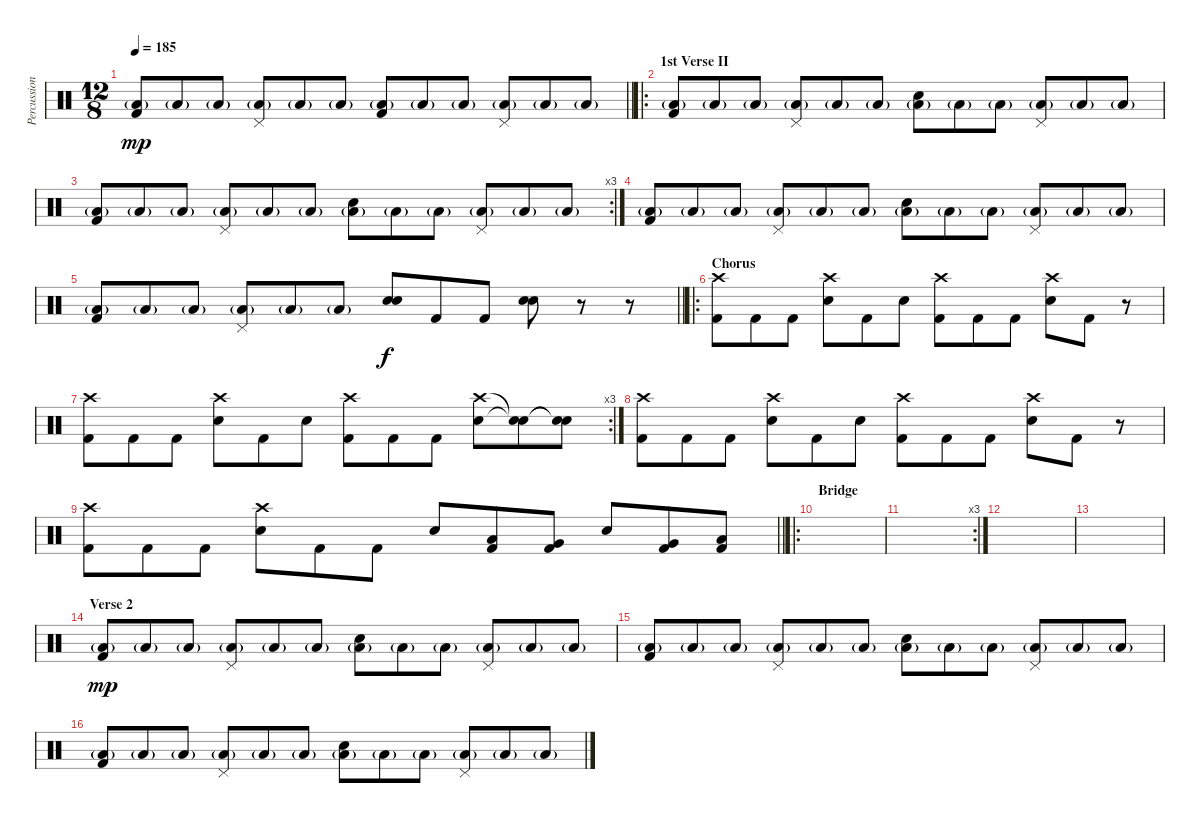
\track ("Percussion" "Percussion") {instrument percussion}
\staff {score}
\articulation defaults
\ts (12 8)
\tempo 185
\clef neutral
\barLineRight lightlight
\ks c
("Low Floor Tom (hit)"{g} "Kick (hit) 2").8{dy mp} "Low Floor Tom (hit)"{g}.8 "Low Floor Tom (hit)"{g}.8 ("Low Floor Tom (hit)"{g} "Pedal Hi-Hat (hit)").8 "Low Floor Tom (hit)"{g}.8 "Low Floor Tom (hit)"{g}.8 ("Low Floor Tom (hit)"{g} "Kick (hit) 2").8 "Low Floor Tom (hit)"{g}.8 "Low Floor Tom (hit)"{g}.8 ("Low Floor Tom (hit)"{g} "Pedal Hi-Hat (hit)").8 "Low Floor Tom (hit)"{g}.8 "Low Floor Tom (hit)"{g}.8 |
\ro
\section ("" "1st Verse II")
("Low Floor Tom (hit)"{g} "Kick (hit) 2").8 "Low Floor Tom (hit)"{g}.8 "Low Floor Tom (hit)"{g}.8 ("Low Floor Tom (hit)"{g} "Pedal Hi-Hat (hit)").8 "Low Floor Tom (hit)"{g}.8 "Low Floor Tom (hit)"{g}.8 ("Low Floor Tom (hit)"{g} "Electric Snare (hit)").8 "Low Floor Tom (hit)"{g}.8 "Low Floor Tom (hit)"{g}.8 ("Low Floor Tom (hit)"{g} "Pedal Hi-Hat (hit)").8 "Low Floor Tom (hit)"{g}.8 "Low Floor Tom (hit)"{g}.8 |
\rc 3
("Low Floor Tom (hit)"{g} "Kick (hit) 2").8 "Low Floor Tom (hit)"{g}.8 "Low Floor Tom (hit)"{g}.8 ("Low Floor Tom (hit)"{g} "Pedal Hi-Hat (hit)").8 "Low Floor Tom (hit)"{g}.8 "Low Floor Tom (hit)"{g}.8 ("Low Floor Tom (hit)"{g} "Electric Snare (hit)").8 "Low Floor Tom (hit)"{g}.8 "Low Floor Tom (hit)"{g}.8 ("Low Floor Tom (hit)"{g} "Pedal Hi-Hat (hit)").8 "Low Floor Tom (hit)"{g}.8 "Low Floor Tom (hit)"{g}.8 |
("Low Floor Tom (hit)"{g} "Kick (hit) 2").8 "Low Floor Tom (hit)"{g}.8 "Low Floor Tom (hit)"{g}.8 ("Low Floor Tom (hit)"{g} "Pedal Hi-Hat (hit)").8 "Low Floor Tom (hit)"{g}.8 "Low Floor Tom (hit)"{g}.8 ("Low Floor Tom (hit)"{g} "Electric Snare (hit)").8 "Low Floor Tom (hit)"{g}.8 "Low Floor Tom (hit)"{g}.8 ("Low Floor Tom (hit)"{g} "Pedal Hi-Hat (hit)").8 "Low Floor Tom (hit)"{g}.8 "Low Floor Tom (hit)"{g}.8 |
\barLineRight lightlight
("Low Floor Tom (hit)"{g} "Kick (hit) 2").8 "Low Floor Tom (hit)"{g}.8 "Low Floor Tom (hit)"{g}.8 ("Low Floor Tom (hit)"{g} "Pedal Hi-Hat (hit)").8 "Low Floor Tom (hit)"{g}.8 "Low Floor Tom (hit)"{g}.8 ("Electric Snare (hit)" "Electric Snare (hit)").8{dy f} "Kick (hit) 2".8 "Kick (hit) 2".8 ("Electric Snare (hit)" "Electric Snare (hit)").8 r.8 r.8 |
\ro
\section ("" "Chorus")
("Crash high (hit)" "Kick (hit) 2").8 "Kick (hit) 2".8 "Kick (hit) 2".8 ("Crash high (hit)" "Electric Snare (hit)").8 "Kick (hit) 2".8 "Electric Snare (hit)".8 ("Crash high (hit)" "Kick (hit) 2").8 "Kick (hit) 2".8 "Kick (hit) 2".8 ("Crash high (hit)" "Electric Snare (hit)").8 "Kick (hit) 2".8 r.8 |
\rc 3
("Crash high (hit)" "Kick (hit) 2").8 "Kick (hit) 2".8 "Kick (hit) 2".8 ("Crash high (hit)" "Electric Snare (hit)").8 "Kick (hit) 2".8 "Electric Snare (hit)".8 ("Crash high (hit)" "Kick (hit) 2").8 "Kick (hit) 2".8 "Kick (hit) 2".8 ("Crash high (hit)" "Electric Snare (hit)").8 ("Snare (hit)"{t} "Snare (hit)"{t}).8 ("Snare (hit)"{t} "Snare (hit)"{t}).8 |
("Crash high (hit)" "Kick (hit) 2").8 "Kick (hit) 2".8 "Kick (hit) 2".8 ("Crash high (hit)" "Electric Snare (hit)").8 "Kick (hit) 2".8 "Electric Snare (hit)".8 ("Crash high (hit)" "Kick (hit) 2").8 "Kick (hit) 2".8 "Kick (hit) 2".8 ("Crash high (hit)" "Electric Snare (hit)").8 "Kick (hit) 2".8 r.8 |
\barLineRight lightlight
("Crash high (hit)" "Kick (hit) 2").8 "Kick (hit) 2".8 "Kick (hit) 2".8 ("Crash high (hit)" "Electric Snare (hit)").8 "Kick (hit) 2".8 "Kick (hit) 2".8 "Electric Snare (hit)".8 ("Low Tom (hit)" "Kick (hit) 2").8 ("Very Low Tom (hit)" "Kick (hit) 2").8 "Electric Snare (hit)".8 ("Very Low Tom (hit)" "Kick (hit) 2").8 ("Low Floor Tom (hit)" "Kick (hit) 2").8 |
\ro
\section ("" "Bridge")
|
\rc 3
|
|
|
\section ("" "Verse 2")
("Low Floor Tom (hit)"{g} "Kick (hit) 2").8{dy mp} "Low Floor Tom (hit)"{g}.8 "Low Floor Tom (hit)"{g}.8 ("Low Floor Tom (hit)"{g} "Pedal Hi-Hat (hit)").8 "Low Floor Tom (hit)"{g}.8 "Low Floor Tom (hit)"{g}.8 ("Low Floor Tom (hit)"{g} "Electric Snare (hit)").8 "Low Floor Tom (hit)"{g}.8 "Low Floor Tom (hit)"{g}.8 ("Low Floor Tom (hit)"{g} "Pedal Hi-Hat (hit)").8 "Low Floor Tom (hit)"{g}.8 "Low Floor Tom (hit)"{g}.8 |
("Low Floor Tom (hit)"{g} "Kick (hit) 2").8 "Low Floor Tom (hit)"{g}.8 "Low Floor Tom (hit)"{g}.8 ("Low Floor Tom (hit)"{g} "Pedal Hi-Hat (hit)").8 "Low Floor Tom (hit)"{g}.8 "Low Floor Tom (hit)"{g}.8 ("Low Floor Tom (hit)"{g} "Electric Snare (hit)").8 "Low Floor Tom (hit)"{g}.8 "Low Floor Tom (hit)"{g}.8 ("Low Floor Tom (hit)"{g} "Pedal Hi-Hat (hit)").8 "Low Floor Tom (hit)"{g}.8 "Low Floor Tom (hit)"{g}.8 |
("Low Floor Tom (hit)"{g} "Kick (hit) 2").8 "Low Floor Tom (hit)"{g}.8 "Low Floor Tom (hit)"{g}.8 ("Low Floor Tom (hit)"{g} "Pedal Hi-Hat (hit)").8 "Low Floor Tom (hit)"{g}.8 "Low Floor Tom (hit)"{g}.8 ("Low Floor Tom (hit)"{g} "Electric Snare (hit)").8 "Low Floor Tom (hit)"{g}.8 "Low Floor Tom (hit)"{g}.8 ("Low Floor Tom (hit)"{g} "Pedal Hi-Hat (hit)").8 "Low Floor Tom (hit)"{g}.8 "Low Floor Tom (hit)"{g}.8
